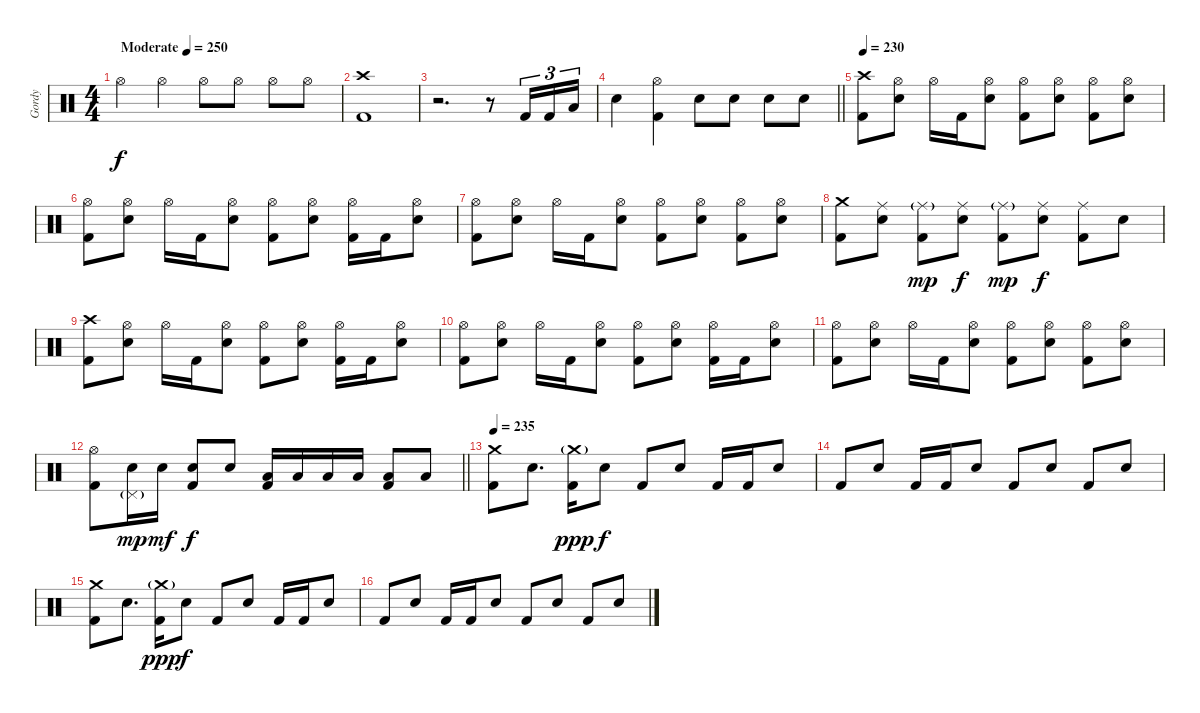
\track ("Gordy" "Gordy") {instrument percussion}
\staff {score}
\articulation defaults
\ts (4 4)
\tempo (250 "Moderate")
\clef neutral
\ks c "Hi-Hat (open)".4{dy f} "Hi-Hat (open)".4 "Hi-Hat (open)".8 "Hi-Hat (open)".8 "Hi-Hat (open)".8 "Hi-Hat (open)".8
|
("Crash high (hit)" "Kick (hit) 2").1 |
r.2{d} r.8 "Kick (hit) 2".16{tu (3 2)} "Kick (hit) 2".16{tu (3 2)} "Low Floor Tom (hit)".16{tu (3 2)} |
\barLineRight lightlight "Electric Snare (hit)".4
("Hi-Hat (open)" "Kick (hit) 2").4 "Electric Snare (hit)".8 "Electric Snare (hit)".8 "Electric Snare (hit)".8 "Electric Snare (hit)".8 |
\section ("" "")
\tempo 230
("Crash high (hit)" "Kick (hit) 2").8 ("Hi-Hat (open)" "Electric Snare (hit)").8 "Hi-Hat (open)".16 "Kick (hit) 2".16 ("Hi-Hat (open)" "Electric Snare (hit)").8 ("Hi-Hat (open)" "Kick (hit) 2").8 ("Hi-Hat (open)" "Electric Snare (hit)").8 ("Hi-Hat (open)" "Kick (hit) 2").8 ("Hi-Hat (open)" "Electric Snare (hit)").8 |
("Hi-Hat (open)" "Kick (hit) 2").8 ("Hi-Hat (open)" "Electric Snare (hit)").8 "Hi-Hat (open)".16 "Kick (hit) 2".16 ("Hi-Hat (open)" "Electric Snare (hit)").8 ("Hi-Hat (open)" "Kick (hit) 2").8 ("Hi-Hat (open)" "Electric Snare (hit)").8 ("Hi-Hat (open)" "Kick (hit) 2").16 "Kick (hit) 2".16 ("Hi-Hat (open)" "Electric Snare (hit)").8 |
("Hi-Hat (open)" "Kick (hit) 2").8 ("Hi-Hat (open)" "Electric Snare (hit)").8 "Hi-Hat (open)".16 "Kick (hit) 2".16 ("Hi-Hat (open)" "Electric Snare (hit)").8 ("Hi-Hat (open)" "Kick (hit) 2").8 ("Hi-Hat (open)" "Electric Snare (hit)").8 ("Hi-Hat (open)" "Kick (hit) 2").8 ("Hi-Hat (open)" "Electric Snare (hit)").8 |
("Crash medium (hit)" "Kick (hit) 2").8 ("Ride (middle)" "Electric Snare (hit)").8 ("Ride (middle)"{g} "Kick (hit) 2").8{dy mp} ("Ride (middle)" "Electric Snare (hit)").8{dy f} ("Ride (middle)"{g} "Kick (hit) 2").8{dy mp} ("Ride (middle)" "Electric Snare (hit)").8{dy f} ("Ride (middle)" "Kick (hit) 2").8 "Electric Snare (hit)".8 |
("Crash high (hit)" "Kick (hit) 2").8 ("Hi-Hat (open)" "Electric Snare (hit)").8 "Hi-Hat (open)".16 "Kick (hit) 2".16 ("Hi-Hat (open)" "Electric Snare (hit)").8 ("Hi-Hat (open)" "Kick (hit) 2").8 ("Hi-Hat (open)" "Electric Snare (hit)").8 ("Hi-Hat (open)" "Kick (hit) 2").16 "Kick (hit) 2".16 ("Hi-Hat (open)" "Electric Snare (hit)").8 |
("Hi-Hat (open)" "Kick (hit) 2").8 ("Hi-Hat (open)" "Electric Snare (hit)").8 "Hi-Hat (open)".16 "Kick (hit) 2".16 ("Hi-Hat (open)" "Electric Snare (hit)").8 ("Hi-Hat (open)" "Kick (hit) 2").8 ("Hi-Hat (open)" "Electric Snare (hit)").8 ("Hi-Hat (open)" "Kick (hit) 2").16 "Kick (hit) 2".16 ("Hi-Hat (open)" "Electric Snare (hit)").8 |
("Hi-Hat (open)" "Kick (hit) 2").8 ("Hi-Hat (open)" "Electric Snare (hit)").8 "Hi-Hat (open)".16 "Kick (hit) 2".16 ("Hi-Hat (open)" "Electric Snare (hit)").8 ("Hi-Hat (open)" "Kick (hit) 2").8 ("Hi-Hat (open)" "Electric Snare (hit)").8 ("Hi-Hat (open)" "Kick (hit) 2").8 ("Hi-Hat (open)" "Electric Snare (hit)").8 |
\barLineRight lightlight
("Hi-Hat (open)" "Kick (hit) 2").8 ("Pedal Hi-Hat (hit)"{g} "Electric Snare (hit)").16{dy mp} "Electric Snare (hit)".16{dy mf} ("Electric Snare (hit)" "Kick (hit) 2").8{dy f} "Electric Snare (hit)".8 ("Low Tom (hit)" "Kick (hit) 2").16 "Low Tom (hit)".16 "Low Tom (hit)".16 "Low Tom (hit)".16 ("Low Floor Tom (hit)" "Kick (hit) 2").8 "Low Floor Tom (hit)".8 |
\section ("" "")
\tempo 235
("Crash medium (hit)" "Kick (hit) 2").8 "Electric Snare (hit)".8{d} ("Crash medium (hit)"{g} "Kick (hit) 2").16{dy ppp} "Electric Snare (hit)".8{dy f} "Kick (hit) 2".8 "Electric Snare (hit)".8 "Kick (hit) 2".16 "Kick (hit) 2".16 "Electric Snare (hit)".8 |
"Kick (hit) 2".8 "Electric Snare (hit)".8 "Kick (hit) 2".16 "Kick (hit) 2".16 "Electric Snare (hit)".8 "Kick (hit) 2".8 "Electric Snare (hit)".8 "Kick (hit) 2".8 "Electric Snare (hit)".8 |
("Crash medium (hit)" "Kick (hit) 2").8 "Electric Snare (hit)".8{d} ("Crash medium (hit)"{g} "Kick (hit) 2").16{dy ppp} "Electric Snare (hit)".8{dy f} "Kick (hit) 2".8 "Electric Snare (hit)".8 "Kick (hit) 2".16 "Kick (hit) 2".16 "Electric Snare (hit)".8 |
"Kick (hit) 2".8 "Electric Snare (hit)".8 "Kick (hit) 2".16 "Kick (hit) 2".16 "Electric Snare (hit)".8 "Kick (hit) 2".8 "Electric Snare (hit)".8 "Kick (hit) 2".8 "Electric Snare (hit)".8
